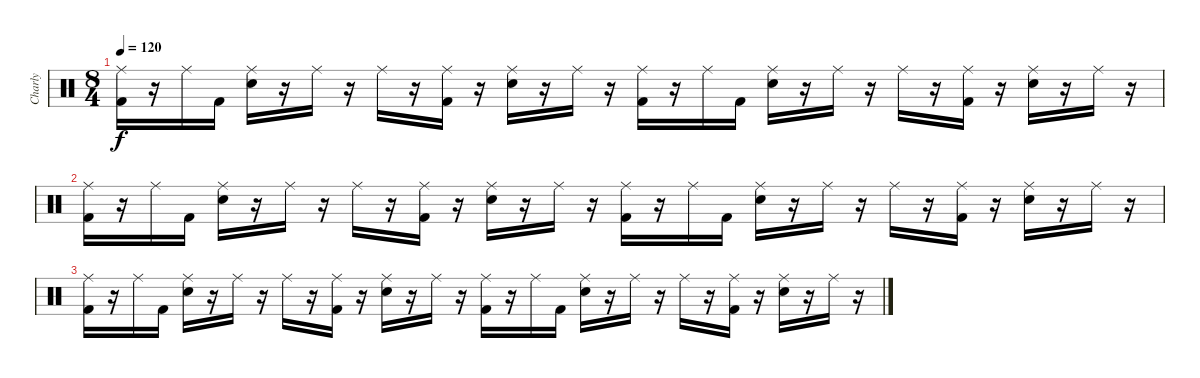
\track ("Charly" "Charly") {instrument percussion}
\staff {score}
\articulation defaults
\ts (8 4)
\tempo 120
\clef neutral
\ks c
("Ride (middle)" "Kick (hit) 2").16{dy f} r.16 "Ride (middle)".16 "Kick (hit) 2".16 ("Ride (middle)" "Snare (hit) 2").16 r.16 "Ride (middle)".16 r.16 "Ride (middle)".16 r.16 ("Ride (middle)" "Kick (hit) 2").16 r.16 ("Ride (middle)" "Snare (hit) 2").16 r.16 "Ride (middle)".16 r.16 ("Ride (middle)" "Kick (hit) 2").16 r.16 "Ride (middle)".16 "Kick (hit) 2".16 ("Ride (middle)" "Snare (hit) 2").16 r.16 "Ride (middle)".16 r.16 "Ride (middle)".16 r.16 ("Ride (middle)" "Kick (hit) 2").16 r.16 ("Ride (middle)" "Snare (hit) 2").16 r.16 "Ride (middle)".16 r.16 |
("Ride (middle)" "Kick (hit) 2").16 r.16 "Ride (middle)".16 "Kick (hit) 2".16 ("Ride (middle)" "Snare (hit) 2").16 r.16 "Ride (middle)".16 r.16 "Ride (middle)".16 r.16 ("Ride (middle)" "Kick (hit) 2").16 r.16 ("Ride (middle)" "Snare (hit) 2").16 r.16 "Ride (middle)".16 r.16 ("Ride (middle)" "Kick (hit) 2").16 r.16 "Ride (middle)".16 "Kick (hit) 2".16 ("Ride (middle)" "Snare (hit) 2").16 r.16 "Ride (middle)".16 r.16 "Ride (middle)".16 r.16 ("Ride (middle)" "Kick (hit) 2").16 r.16 ("Ride (middle)" "Snare (hit) 2").16 r.16 "Ride (middle)".16 r.16 |
("Ride (middle)" "Kick (hit) 2").16 r.16 "Ride (middle)".16 "Kick (hit) 2".16 ("Ride (middle)" "Snare (hit) 2").16 r.16 "Ride (middle)".16 r.16 "Ride (middle)".16 r.16 ("Ride (middle)" "Kick (hit) 2").16 r.16 ("Ride (middle)" "Snare (hit) 2").16 r.16 "Ride (middle)".16 r.16 ("Ride (middle)" "Kick (hit) 2").16 r.16 "Ride (middle)".16 "Kick (hit) 2".16 ("Ride (middle)" "Snare (hit) 2").16 r.16 "Ride (middle)".16 r.16 "Ride (middle)".16 r.16 ("Ride (middle)" "Kick (hit) 2").16 r.16 ("Ride (middle)" "Snare (hit) 2").16 r.16 "Ride (middle)".16 r.16
